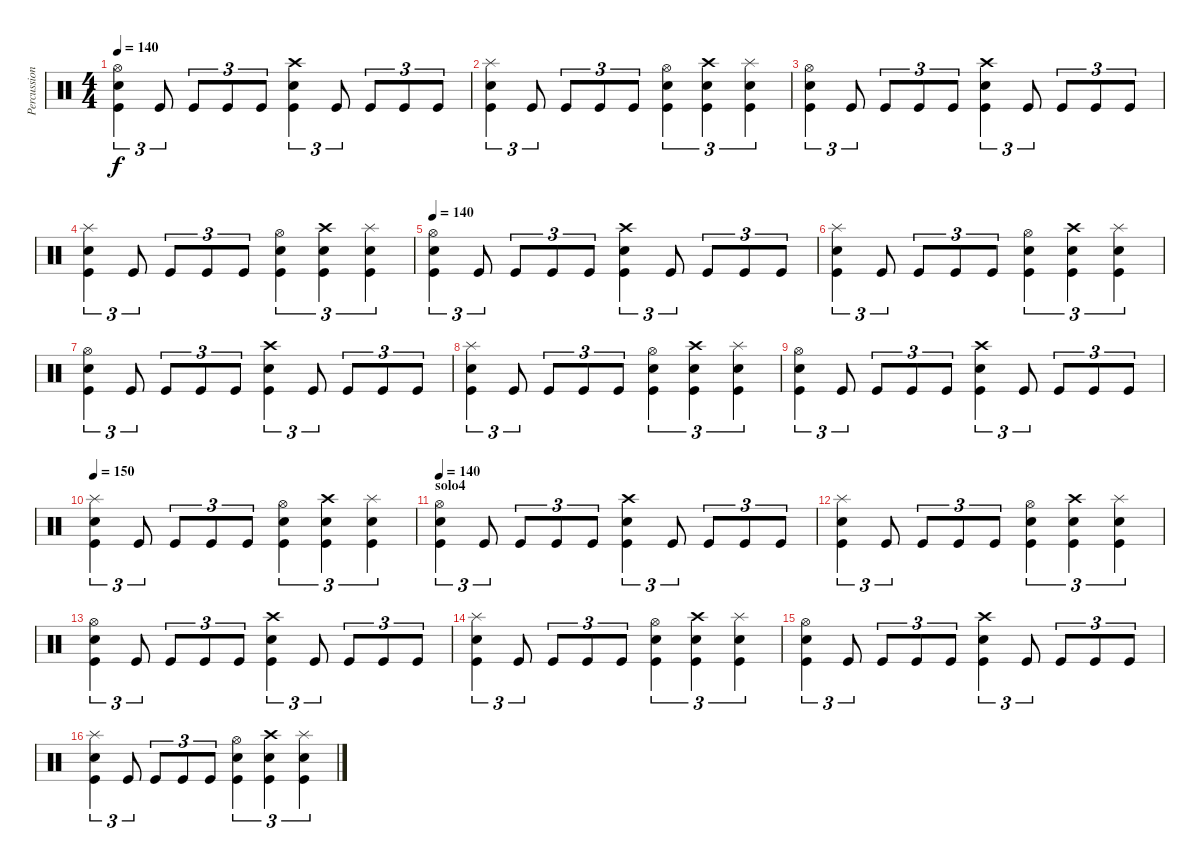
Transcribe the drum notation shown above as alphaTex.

\track ("Percussions" "Percussion") {instrument percussion}
\staff {score}
\articulation defaults
\ts (4 4)
\tempo 140
\clef neutral
\ks c
("Hi-Hat (open)" "Snare (hit) 2" "Kick (hit)").4{tu (3 2) dy f} "Kick (hit)".8{tu (3 2)} "Kick (hit)".8{tu (3 2)} "Kick (hit)".8{tu (3 2)} "Kick (hit)".8{tu (3 2)} ("Crash high (hit)" "Snare (hit) 2" "Kick (hit)").4{tu (3 2)} "Kick (hit)".8{tu (3 2)} "Kick (hit)".8{tu (3 2)} "Kick (hit)".8{tu (3 2)} "Kick (hit)".8{tu (3 2)} |
("Splash (hit)" "Snare (hit) 2" "Kick (hit)").4{tu (3 2)} "Kick (hit)".8{tu (3 2)} "Kick (hit)".8{tu (3 2)} "Kick (hit)".8{tu (3 2)} "Kick (hit)".8{tu (3 2)} ("Hi-Hat (open)" "Kick (hit)" "Snare (hit) 2").4{tu (3 2)} ("Crash high (hit)" "Kick (hit)" "Snare (hit) 2").4{tu (3 2)} ("Splash (hit)" "Kick (hit)" "Snare (hit) 2").4{tu (3 2)} |
("Hi-Hat (open)" "Snare (hit) 2" "Kick (hit)").4{tu (3 2)} "Kick (hit)".8{tu (3 2)} "Kick (hit)".8{tu (3 2)} "Kick (hit)".8{tu (3 2)} "Kick (hit)".8{tu (3 2)} ("Crash high (hit)" "Snare (hit) 2" "Kick (hit)").4{tu (3 2)} "Kick (hit)".8{tu (3 2)} "Kick (hit)".8{tu (3 2)} "Kick (hit)".8{tu (3 2)} "Kick (hit)".8{tu (3 2)} |
("Splash (hit)" "Snare (hit) 2" "Kick (hit)").4{tu (3 2)} "Kick (hit)".8{tu (3 2)} "Kick (hit)".8{tu (3 2)} "Kick (hit)".8{tu (3 2)} "Kick (hit)".8{tu (3 2)} ("Hi-Hat (open)" "Kick (hit)" "Snare (hit) 2").4{tu (3 2)} ("Crash high (hit)" "Kick (hit)" "Snare (hit) 2").4{tu (3 2)} ("Splash (hit)" "Kick (hit)" "Snare (hit) 2").4{tu (3 2)} |
\tempo 140
("Hi-Hat (open)" "Snare (hit) 2" "Kick (hit)").4{tu (3 2)} "Kick (hit)".8{tu (3 2)} "Kick (hit)".8{tu (3 2)} "Kick (hit)".8{tu (3 2)} "Kick (hit)".8{tu (3 2)} ("Crash high (hit)" "Snare (hit) 2" "Kick (hit)").4{tu (3 2)} "Kick (hit)".8{tu (3 2)} "Kick (hit)".8{tu (3 2)} "Kick (hit)".8{tu (3 2)} "Kick (hit)".8{tu (3 2)} |
("Splash (hit)" "Snare (hit) 2" "Kick (hit)").4{tu (3 2)} "Kick (hit)".8{tu (3 2)} "Kick (hit)".8{tu (3 2)} "Kick (hit)".8{tu (3 2)} "Kick (hit)".8{tu (3 2)} ("Hi-Hat (open)" "Kick (hit)" "Snare (hit) 2").4{tu (3 2)} ("Crash high (hit)" "Kick (hit)" "Snare (hit) 2").4{tu (3 2)} ("Splash (hit)" "Kick (hit)" "Snare (hit) 2").4{tu (3 2)} |
("Hi-Hat (open)" "Snare (hit) 2" "Kick (hit)").4{tu (3 2)} "Kick (hit)".8{tu (3 2)} "Kick (hit)".8{tu (3 2)} "Kick (hit)".8{tu (3 2)} "Kick (hit)".8{tu (3 2)} ("Crash high (hit)" "Snare (hit) 2" "Kick (hit)").4{tu (3 2)} "Kick (hit)".8{tu (3 2)} "Kick (hit)".8{tu (3 2)} "Kick (hit)".8{tu (3 2)} "Kick (hit)".8{tu (3 2)} |
("Splash (hit)" "Snare (hit) 2" "Kick (hit)").4{tu (3 2)} "Kick (hit)".8{tu (3 2)} "Kick (hit)".8{tu (3 2)} "Kick (hit)".8{tu (3 2)} "Kick (hit)".8{tu (3 2)} ("Hi-Hat (open)" "Kick (hit)" "Snare (hit) 2").4{tu (3 2)} ("Crash high (hit)" "Kick (hit)" "Snare (hit) 2").4{tu (3 2)} ("Splash (hit)" "Kick (hit)" "Snare (hit) 2").4{tu (3 2)} |
("Hi-Hat (open)" "Snare (hit) 2" "Kick (hit)").4{tu (3 2)} "Kick (hit)".8{tu (3 2)} "Kick (hit)".8{tu (3 2)} "Kick (hit)".8{tu (3 2)} "Kick (hit)".8{tu (3 2)} ("Crash high (hit)" "Snare (hit) 2" "Kick (hit)").4{tu (3 2)} "Kick (hit)".8{tu (3 2)} "Kick (hit)".8{tu (3 2)} "Kick (hit)".8{tu (3 2)} "Kick (hit)".8{tu (3 2)} |
\tempo 150
("Splash (hit)" "Snare (hit) 2" "Kick (hit)").4{tu (3 2)} "Kick (hit)".8{tu (3 2)} "Kick (hit)".8{tu (3 2)} "Kick (hit)".8{tu (3 2)} "Kick (hit)".8{tu (3 2)} ("Hi-Hat (open)" "Kick (hit)" "Snare (hit) 2").4{tu (3 2)} ("Crash high (hit)" "Kick (hit)" "Snare (hit) 2").4{tu (3 2)} ("Splash (hit)" "Kick (hit)" "Snare (hit) 2").4{tu (3 2)} |
\section ("" "solo4")
\tempo 140
("Hi-Hat (open)" "Snare (hit) 2" "Kick (hit)").4{tu (3 2)} "Kick (hit)".8{tu (3 2)} "Kick (hit)".8{tu (3 2)} "Kick (hit)".8{tu (3 2)} "Kick (hit)".8{tu (3 2)} ("Crash high (hit)" "Snare (hit) 2" "Kick (hit)").4{tu (3 2)} "Kick (hit)".8{tu (3 2)} "Kick (hit)".8{tu (3 2)} "Kick (hit)".8{tu (3 2)} "Kick (hit)".8{tu (3 2)} |
("Splash (hit)" "Snare (hit) 2" "Kick (hit)").4{tu (3 2)} "Kick (hit)".8{tu (3 2)} "Kick (hit)".8{tu (3 2)} "Kick (hit)".8{tu (3 2)} "Kick (hit)".8{tu (3 2)} ("Hi-Hat (open)" "Kick (hit)" "Snare (hit) 2").4{tu (3 2)} ("Crash high (hit)" "Kick (hit)" "Snare (hit) 2").4{tu (3 2)} ("Splash (hit)" "Kick (hit)" "Snare (hit) 2").4{tu (3 2)} |
("Hi-Hat (open)" "Snare (hit) 2" "Kick (hit)").4{tu (3 2)} "Kick (hit)".8{tu (3 2)} "Kick (hit)".8{tu (3 2)} "Kick (hit)".8{tu (3 2)} "Kick (hit)".8{tu (3 2)} ("Crash high (hit)" "Snare (hit) 2" "Kick (hit)").4{tu (3 2)} "Kick (hit)".8{tu (3 2)} "Kick (hit)".8{tu (3 2)} "Kick (hit)".8{tu (3 2)} "Kick (hit)".8{tu (3 2)} |
("Splash (hit)" "Snare (hit) 2" "Kick (hit)").4{tu (3 2)} "Kick (hit)".8{tu (3 2)} "Kick (hit)".8{tu (3 2)} "Kick (hit)".8{tu (3 2)} "Kick (hit)".8{tu (3 2)} ("Hi-Hat (open)" "Kick (hit)" "Snare (hit) 2").4{tu (3 2)} ("Crash high (hit)" "Kick (hit)" "Snare (hit) 2").4{tu (3 2)} ("Splash (hit)" "Kick (hit)" "Snare (hit) 2").4{tu (3 2)} |
("Hi-Hat (open)" "Snare (hit) 2" "Kick (hit)").4{tu (3 2)} "Kick (hit)".8{tu (3 2)} "Kick (hit)".8{tu (3 2)} "Kick (hit)".8{tu (3 2)} "Kick (hit)".8{tu (3 2)} ("Crash high (hit)" "Snare (hit) 2" "Kick (hit)").4{tu (3 2)} "Kick (hit)".8{tu (3 2)} "Kick (hit)".8{tu (3 2)} "Kick (hit)".8{tu (3 2)} "Kick (hit)".8{tu (3 2)} |
("Splash (hit)" "Snare (hit) 2" "Kick (hit)").4{tu (3 2)} "Kick (hit)".8{tu (3 2)} "Kick (hit)".8{tu (3 2)} "Kick (hit)".8{tu (3 2)} "Kick (hit)".8{tu (3 2)} ("Hi-Hat (open)" "Kick (hit)" "Snare (hit) 2").4{tu (3 2)} ("Crash high (hit)" "Kick (hit)" "Snare (hit) 2").4{tu (3 2)} ("Splash (hit)" "Kick (hit)" "Snare (hit) 2").4{tu (3 2)}
